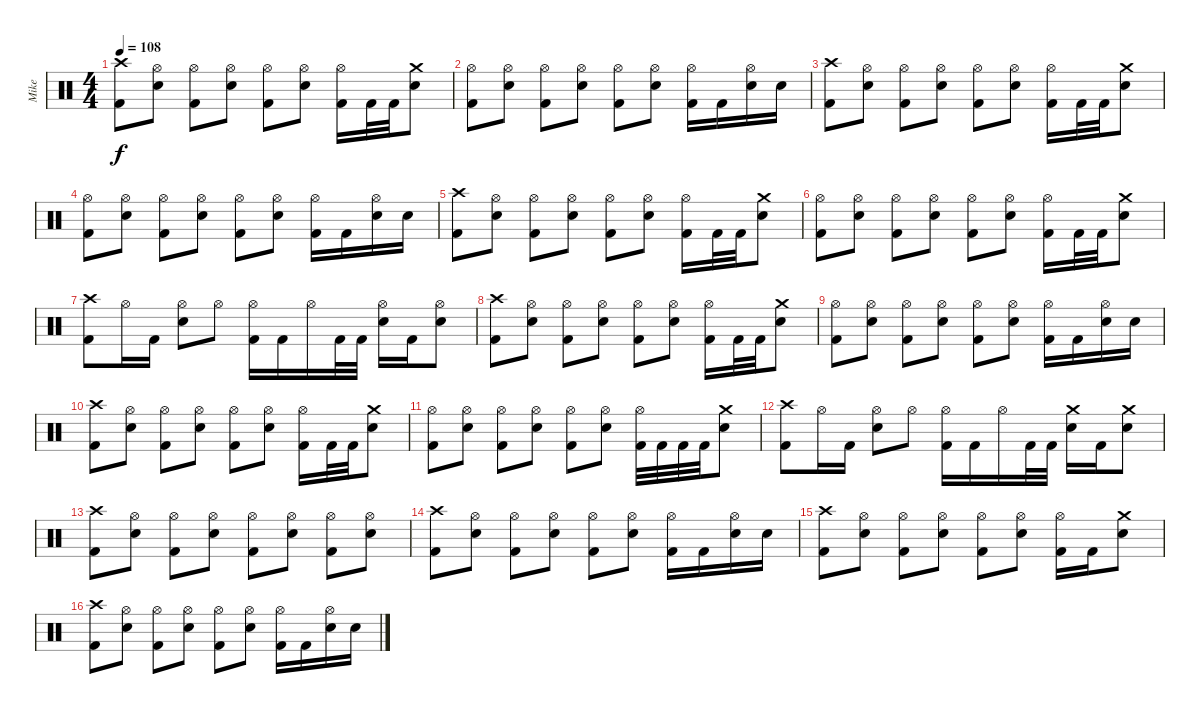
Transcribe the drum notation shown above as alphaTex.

\track ("Mike" "Mike") {instrument percussion}
\staff {score}
\articulation defaults
\ts (4 4)
\tempo 108
\clef neutral
\ks c
("Crash high (hit)" "Kick (hit) 2").8{dy f} ("Hi-Hat (open)" "Snare (hit) 2").8 ("Hi-Hat (open)" "Kick (hit) 2").8 ("Hi-Hat (open)" "Snare (hit) 2").8 ("Hi-Hat (open)" "Kick (hit) 2").8 ("Hi-Hat (open)" "Snare (hit) 2").8 ("Hi-Hat (open)" "Kick (hit) 2").16 "Kick (hit) 2".32 "Kick (hit) 2".32 ("Crash medium (hit)" "Snare (hit) 2").8 |
("Hi-Hat (open)" "Kick (hit) 2").8 ("Hi-Hat (open)" "Snare (hit) 2").8 ("Hi-Hat (open)" "Kick (hit) 2").8 ("Hi-Hat (open)" "Snare (hit) 2").8 ("Hi-Hat (open)" "Kick (hit) 2").8 ("Hi-Hat (open)" "Snare (hit) 2").8 ("Hi-Hat (open)" "Kick (hit) 2").16 "Kick (hit) 2".16 ("Hi-Hat (open)" "Snare (hit) 2").16 "Snare (hit) 2".16 |
("Crash high (hit)" "Kick (hit) 2").8 ("Hi-Hat (open)" "Snare (hit) 2").8 ("Hi-Hat (open)" "Kick (hit) 2").8 ("Hi-Hat (open)" "Snare (hit) 2").8 ("Hi-Hat (open)" "Kick (hit) 2").8 ("Hi-Hat (open)" "Snare (hit) 2").8 ("Hi-Hat (open)" "Kick (hit) 2").16 "Kick (hit) 2".32 "Kick (hit) 2".32 ("Crash medium (hit)" "Snare (hit) 2").8 |
("Hi-Hat (open)" "Kick (hit) 2").8 ("Hi-Hat (open)" "Snare (hit) 2").8 ("Hi-Hat (open)" "Kick (hit) 2").8 ("Hi-Hat (open)" "Snare (hit) 2").8 ("Hi-Hat (open)" "Kick (hit) 2").8 ("Hi-Hat (open)" "Snare (hit) 2").8 ("Hi-Hat (open)" "Kick (hit) 2").16 "Kick (hit) 2".16 ("Hi-Hat (open)" "Snare (hit) 2").16 "Snare (hit) 2".16 |
("Crash high (hit)" "Kick (hit) 2").8 ("Hi-Hat (open)" "Snare (hit) 2").8 ("Hi-Hat (open)" "Kick (hit) 2").8 ("Hi-Hat (open)" "Snare (hit) 2").8 ("Hi-Hat (open)" "Kick (hit) 2").8 ("Hi-Hat (open)" "Snare (hit) 2").8 ("Hi-Hat (open)" "Kick (hit) 2").16 "Kick (hit) 2".32 "Kick (hit) 2".32 ("Crash medium (hit)" "Snare (hit) 2").8 |
("Hi-Hat (open)" "Kick (hit) 2").8 ("Hi-Hat (open)" "Snare (hit) 2").8 ("Hi-Hat (open)" "Kick (hit) 2").8 ("Hi-Hat (open)" "Snare (hit) 2").8 ("Hi-Hat (open)" "Kick (hit) 2").8 ("Hi-Hat (open)" "Snare (hit) 2").8 ("Hi-Hat (open)" "Kick (hit) 2").16 "Kick (hit) 2".32 "Kick (hit) 2".32 ("Crash medium (hit)" "Snare (hit) 2").8 |
("Crash high (hit)" "Kick (hit) 2").8 "Hi-Hat (open)".16 "Kick (hit) 2".16 ("Hi-Hat (open)" "Snare (hit) 2").8 "Hi-Hat (open)".8 ("Hi-Hat (open)" "Kick (hit) 2").16 "Kick (hit) 2".16 "Hi-Hat (open)".16 "Kick (hit) 2".32 "Kick (hit) 2".32 ("Hi-Hat (open)" "Snare (hit) 2").16 "Kick (hit) 2".16 ("Hi-Hat (open)" "Snare (hit) 2").8 |
("Crash high (hit)" "Kick (hit) 2").8 ("Hi-Hat (open)" "Snare (hit) 2").8 ("Hi-Hat (open)" "Kick (hit) 2").8 ("Hi-Hat (open)" "Snare (hit) 2").8 ("Hi-Hat (open)" "Kick (hit) 2").8 ("Hi-Hat (open)" "Snare (hit) 2").8 ("Hi-Hat (open)" "Kick (hit) 2").16 "Kick (hit) 2".32 "Kick (hit) 2".32 ("Crash medium (hit)" "Snare (hit) 2").8 |
("Hi-Hat (open)" "Kick (hit) 2").8 ("Hi-Hat (open)" "Snare (hit) 2").8 ("Hi-Hat (open)" "Kick (hit) 2").8 ("Hi-Hat (open)" "Snare (hit) 2").8 ("Hi-Hat (open)" "Kick (hit) 2").8 ("Hi-Hat (open)" "Snare (hit) 2").8 ("Hi-Hat (open)" "Kick (hit) 2").16 "Kick (hit) 2".16 ("Hi-Hat (open)" "Snare (hit) 2").16 "Snare (hit) 2".16 |
("Crash high (hit)" "Kick (hit) 2").8 ("Hi-Hat (open)" "Snare (hit) 2").8 ("Hi-Hat (open)" "Kick (hit) 2").8 ("Hi-Hat (open)" "Snare (hit) 2").8 ("Hi-Hat (open)" "Kick (hit) 2").8 ("Hi-Hat (open)" "Snare (hit) 2").8 ("Hi-Hat (open)" "Kick (hit) 2").16 "Kick (hit) 2".32 "Kick (hit) 2".32 ("Crash medium (hit)" "Snare (hit) 2").8 |
("Hi-Hat (open)" "Kick (hit) 2").8 ("Hi-Hat (open)" "Snare (hit) 2").8 ("Hi-Hat (open)" "Kick (hit) 2").8 ("Hi-Hat (open)" "Snare (hit) 2").8 ("Hi-Hat (open)" "Kick (hit) 2").8 ("Hi-Hat (open)" "Snare (hit) 2").8 ("Hi-Hat (open)" "Kick (hit) 2").32 "Kick (hit) 2".32 "Kick (hit) 2".32 "Kick (hit) 2".32 ("Crash medium (hit)" "Snare (hit) 2").8 |
("Crash high (hit)" "Kick (hit) 2").8 "Hi-Hat (open)".16 "Kick (hit) 2".16 ("Hi-Hat (open)" "Snare (hit) 2").8 "Hi-Hat (open)".8 ("Hi-Hat (open)" "Kick (hit) 2").16 "Kick (hit) 2".16 "Hi-Hat (open)".16 "Kick (hit) 2".32 "Kick (hit) 2".32 ("Crash medium (hit)" "Snare (hit) 2").16 "Kick (hit) 2".16 ("Crash medium (hit)" "Snare (hit) 2").8 |
("Crash high (hit)" "Kick (hit) 2").8 ("Hi-Hat (open)" "Snare (hit) 2").8 ("Hi-Hat (open)" "Kick (hit) 2").8 ("Hi-Hat (open)" "Snare (hit) 2").8 ("Hi-Hat (open)" "Kick (hit) 2").8 ("Hi-Hat (open)" "Snare (hit) 2").8 ("Hi-Hat (open)" "Kick (hit) 2").8 ("Hi-Hat (open)" "Snare (hit) 2").8 |
("Crash high (hit)" "Kick (hit) 2").8 ("Hi-Hat (open)" "Snare (hit) 2").8 ("Hi-Hat (open)" "Kick (hit) 2").8 ("Hi-Hat (open)" "Snare (hit) 2").8 ("Hi-Hat (open)" "Kick (hit) 2").8 ("Hi-Hat (open)" "Snare (hit) 2").8 ("Hi-Hat (open)" "Kick (hit) 2").16 "Kick (hit) 2".16 ("Hi-Hat (open)" "Snare (hit) 2").16 "Snare (hit) 2".16 |
("Crash high (hit)" "Kick (hit) 2").8 ("Hi-Hat (open)" "Snare (hit) 2").8 ("Hi-Hat (open)" "Kick (hit) 2").8 ("Hi-Hat (open)" "Snare (hit) 2").8 ("Hi-Hat (open)" "Kick (hit) 2").8 ("Hi-Hat (open)" "Snare (hit) 2").8 ("Hi-Hat (open)" "Kick (hit) 2").16 "Kick (hit) 2".16 ("Crash medium (hit)" "Snare (hit) 2").8 |
("Crash high (hit)" "Kick (hit) 2").8 ("Hi-Hat (open)" "Snare (hit) 2").8 ("Hi-Hat (open)" "Kick (hit) 2").8 ("Hi-Hat (open)" "Snare (hit) 2").8 ("Hi-Hat (open)" "Kick (hit) 2").8 ("Hi-Hat (open)" "Snare (hit) 2").8 ("Hi-Hat (open)" "Kick (hit) 2").16 "Kick (hit) 2".16 ("Hi-Hat (open)" "Snare (hit) 2").16 "Snare (hit) 2".16
